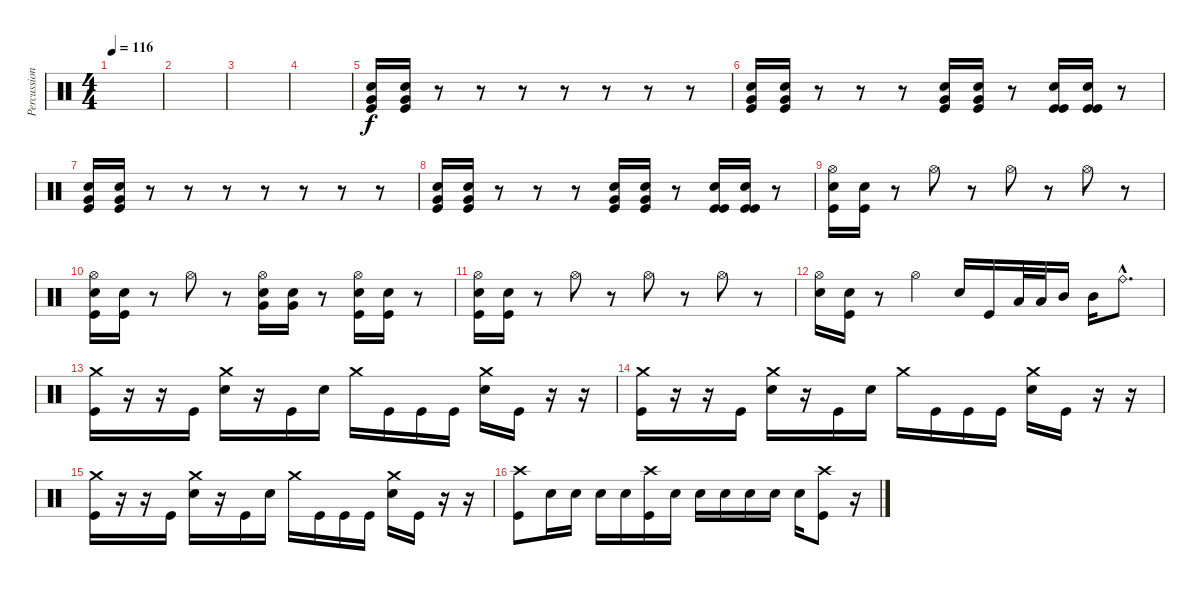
\track ("Percussion" "Percussion") {instrument percussion}
\staff {score}
\articulation defaults
\ts (4 4)
\tempo 116
\clef neutral
\ks c
|
|
|
|
("Electric Snare (hit)" "Very Low Tom (hit)" "Kick (hit)").16 ("Electric Snare (hit)" "Very Low Tom (hit)" "Kick (hit)").16 r.8 r.8 r.8 r.8 r.8 r.8 r.8 |
("Electric Snare (hit)" "Very Low Tom (hit)" "Kick (hit)").16 ("Electric Snare (hit)" "Very Low Tom (hit)" "Kick (hit)").16 r.8 r.8 r.8 ("Electric Snare (hit)" "Kick (hit)" "Very Low Tom (hit)").16 ("Electric Snare (hit)" "Kick (hit)" "Very Low Tom (hit)").16 r.8 ("Electric Snare (hit)" "Kick (hit)" "Kick (hit)").16 ("Electric Snare (hit)" "Kick (hit)" "Kick (hit)").16 r.8 |
("Electric Snare (hit)" "Very Low Tom (hit)" "Kick (hit)").16 ("Electric Snare (hit)" "Very Low Tom (hit)" "Kick (hit)").16 r.8 r.8 r.8 r.8 r.8 r.8 r.8 |
("Electric Snare (hit)" "Very Low Tom (hit)" "Kick (hit)").16 ("Electric Snare (hit)" "Very Low Tom (hit)" "Kick (hit)").16 r.8 r.8 r.8 ("Electric Snare (hit)" "Kick (hit)" "Very Low Tom (hit)").16 ("Electric Snare (hit)" "Kick (hit)" "Very Low Tom (hit)").16 r.8 ("Electric Snare (hit)" "Kick (hit)" "Kick (hit)").16 ("Electric Snare (hit)" "Kick (hit)" "Kick (hit)").16 r.8 |
("Hi-Hat (open)" "Electric Snare (hit)" "Kick (hit)").16 ("Electric Snare (hit)" "Kick (hit)").16 r.8 "Hi-Hat (open)".8 r.8 "Hi-Hat (open)".8 r.8 "Hi-Hat (open)".8 r.8 |
("Hi-Hat (open)" "Electric Snare (hit)" "Kick (hit)").16 ("Electric Snare (hit)" "Kick (hit)").16 r.8 "Hi-Hat (open)".8 r.8 ("Hi-Hat (open)" "Electric Snare (hit)" "Very Low Tom (hit)").16 ("Electric Snare (hit)" "Very Low Tom (hit)").16 r.8 ("Hi-Hat (open)" "Electric Snare (hit)" "Kick (hit)").16 ("Electric Snare (hit)" "Kick (hit)").16 r.8 |
("Hi-Hat (open)" "Electric Snare (hit)" "Kick (hit)").16 ("Electric Snare (hit)" "Kick (hit)").16 r.8 "Hi-Hat (open)".8 r.8 "Hi-Hat (open)".8 r.8 "Hi-Hat (open)".8 r.8 |
("Hi-Hat (open)" "Electric Snare (hit)").16 ("Electric Snare (hit)" "Kick (hit)").16 r.8 "Hi-Hat (open)".4 "Electric Snare (hit)".16 "Kick (hit)".16 "Low Tom (hit)".32 "Low Tom (hit)".32 "Mid Tom (hit)".16 "Mid Tom (hit)".16 "Ride (bell)"{hac}.8{d} |
("Crash medium (hit)" "Kick (hit)").16 r.16 r.16 "Kick (hit)".16 ("Crash medium (hit)" "Electric Snare (hit)").16 r.16 "Kick (hit)".16 "Electric Snare (hit)".16 "Crash medium (hit)".16 "Kick (hit)".16 "Kick (hit)".16 "Kick (hit)".16 ("Crash medium (hit)" "Electric Snare (hit)").16 "Kick (hit)".16 r.16 r.16 |
("Crash medium (hit)" "Kick (hit)").16 r.16 r.16 "Kick (hit)".16 ("Crash medium (hit)" "Electric Snare (hit)").16 r.16 "Kick (hit)".16 "Electric Snare (hit)".16 "Crash medium (hit)".16 "Kick (hit)".16 "Kick (hit)".16 "Kick (hit)".16 ("Crash medium (hit)" "Electric Snare (hit)").16 "Kick (hit)".16 r.16 r.16 |
("Crash medium (hit)" "Kick (hit)").16 r.16 r.16 "Kick (hit)".16 ("Crash medium (hit)" "Electric Snare (hit)").16 r.16 "Kick (hit)".16 "Electric Snare (hit)".16 "Crash medium (hit)".16 "Kick (hit)".16 "Kick (hit)".16 "Kick (hit)".16 ("Crash medium (hit)" "Electric Snare (hit)").16 "Kick (hit)".16 r.16 r.16 |
("Crash high (hit)" "Kick (hit)").8 "Electric Snare (hit)".16 "Electric Snare (hit)".16 "Electric Snare (hit)".16 "Electric Snare (hit)".16 ("Crash high (hit)" "Kick (hit)").16 "Electric Snare (hit)".16 "Electric Snare (hit)".16 "Electric Snare (hit)".16 "Electric Snare (hit)".16 "Electric Snare (hit)".16 "Electric Snare (hit)".16 ("Crash high (hit)" "Kick (hit)").8 r.16
